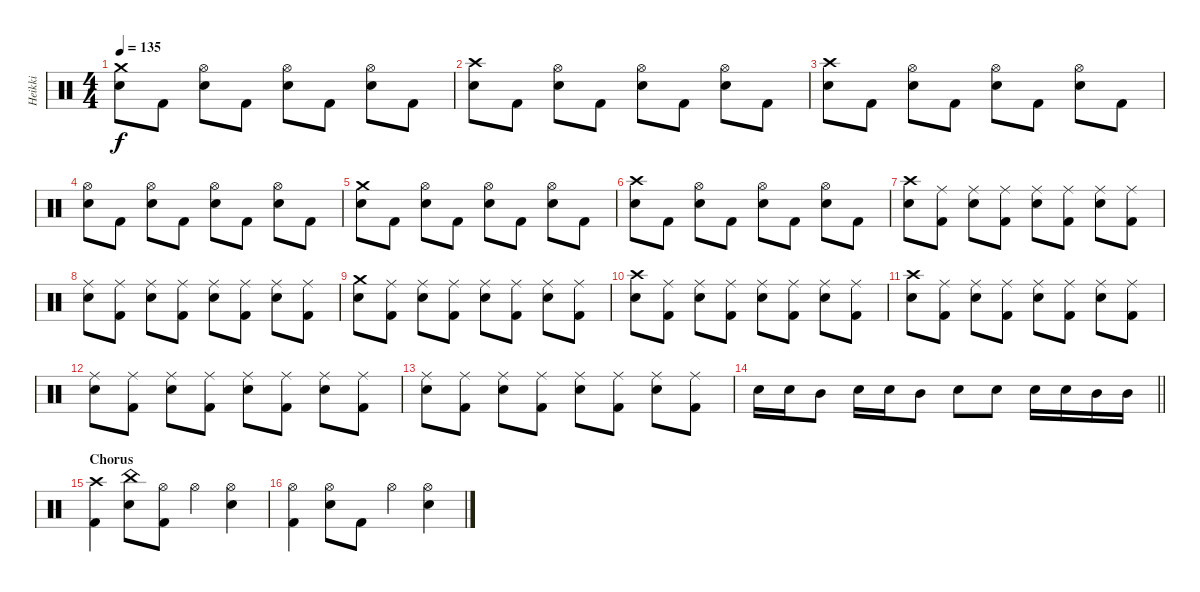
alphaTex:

\track ("Heikki" "Heikki") {instrument percussion}
\staff {score}
\articulation defaults
\ts (4 4)
\tempo 135
\clef neutral
\ks c
("Crash medium (hit)" "Electric Snare (hit)").8{dy f} "Kick (hit) 2".8 ("Hi-Hat (open)" "Electric Snare (hit)").8 "Kick (hit) 2".8 ("Hi-Hat (open)" "Electric Snare (hit)").8 "Kick (hit) 2".8 ("Hi-Hat (open)" "Electric Snare (hit)").8 "Kick (hit) 2".8 |
("Crash high (hit)" "Electric Snare (hit)").8 "Kick (hit) 2".8 ("Hi-Hat (open)" "Electric Snare (hit)").8 "Kick (hit) 2".8 ("Hi-Hat (open)" "Electric Snare (hit)").8 "Kick (hit) 2".8 ("Hi-Hat (open)" "Electric Snare (hit)").8 "Kick (hit) 2".8 |
("Crash high (hit)" "Electric Snare (hit)").8 "Kick (hit) 2".8 ("Hi-Hat (open)" "Electric Snare (hit)").8 "Kick (hit) 2".8 ("Hi-Hat (open)" "Electric Snare (hit)").8 "Kick (hit) 2".8 ("Hi-Hat (open)" "Electric Snare (hit)").8 "Kick (hit) 2".8 |
("Hi-Hat (open)" "Electric Snare (hit)").8 "Kick (hit) 2".8 ("Hi-Hat (open)" "Electric Snare (hit)").8 "Kick (hit) 2".8 ("Hi-Hat (open)" "Electric Snare (hit)").8 "Kick (hit) 2".8 ("Hi-Hat (open)" "Electric Snare (hit)").8 "Kick (hit) 2".8 |
("Crash medium (hit)" "Electric Snare (hit)").8 "Kick (hit) 2".8 ("Hi-Hat (open)" "Electric Snare (hit)").8 "Kick (hit) 2".8 ("Hi-Hat (open)" "Electric Snare (hit)").8 "Kick (hit) 2".8 ("Hi-Hat (open)" "Electric Snare (hit)").8 "Kick (hit) 2".8 |
("Crash high (hit)" "Electric Snare (hit)").8 "Kick (hit) 2".8 ("Hi-Hat (open)" "Electric Snare (hit)").8 "Kick (hit) 2".8 ("Hi-Hat (open)" "Electric Snare (hit)").8 "Kick (hit) 2".8 ("Hi-Hat (open)" "Electric Snare (hit)").8 "Kick (hit) 2".8 |
("Crash high (hit)" "Electric Snare (hit)").8 ("Ride (middle)" "Kick (hit) 2").8 ("Ride (middle)" "Electric Snare (hit)").8 ("Ride (middle)" "Kick (hit) 2").8 ("Ride (middle)" "Electric Snare (hit)").8 ("Ride (middle)" "Kick (hit) 2").8 ("Ride (middle)" "Electric Snare (hit)").8 ("Ride (middle)" "Kick (hit) 2").8 |
("Ride (middle)" "Electric Snare (hit)").8 ("Ride (middle)" "Kick (hit) 2").8 ("Ride (middle)" "Electric Snare (hit)").8 ("Ride (middle)" "Kick (hit) 2").8 ("Ride (middle)" "Electric Snare (hit)").8 ("Ride (middle)" "Kick (hit) 2").8 ("Ride (middle)" "Electric Snare (hit)").8 ("Ride (middle)" "Kick (hit) 2").8 |
("Crash medium (hit)" "Electric Snare (hit)").8 ("Ride (middle)" "Kick (hit) 2").8 ("Ride (middle)" "Electric Snare (hit)").8 ("Ride (middle)" "Kick (hit) 2").8 ("Ride (middle)" "Electric Snare (hit)").8 ("Ride (middle)" "Kick (hit) 2").8 ("Ride (middle)" "Electric Snare (hit)").8 ("Ride (middle)" "Kick (hit) 2").8 |
("Crash high (hit)" "Electric Snare (hit)").8 ("Ride (middle)" "Kick (hit) 2").8 ("Ride (middle)" "Electric Snare (hit)").8 ("Ride (middle)" "Kick (hit) 2").8 ("Ride (middle)" "Electric Snare (hit)").8 ("Ride (middle)" "Kick (hit) 2").8 ("Ride (middle)" "Electric Snare (hit)").8 ("Ride (middle)" "Kick (hit) 2").8 |
("Crash high (hit)" "Electric Snare (hit)").8 ("Ride (middle)" "Kick (hit) 2").8 ("Ride (middle)" "Electric Snare (hit)").8 ("Ride (middle)" "Kick (hit) 2").8 ("Ride (middle)" "Electric Snare (hit)").8 ("Ride (middle)" "Kick (hit) 2").8 ("Ride (middle)" "Electric Snare (hit)").8 ("Ride (middle)" "Kick (hit) 2").8 |
("Ride (middle)" "Electric Snare (hit)").8 ("Ride (middle)" "Kick (hit) 2").8 ("Ride (middle)" "Electric Snare (hit)").8 ("Ride (middle)" "Kick (hit) 2").8 ("Ride (middle)" "Electric Snare (hit)").8 ("Ride (middle)" "Kick (hit) 2").8 ("Ride (middle)" "Electric Snare (hit)").8 ("Ride (middle)" "Kick (hit) 2").8 |
("Ride (middle)" "Electric Snare (hit)").8 ("Ride (middle)" "Kick (hit) 2").8 ("Ride (middle)" "Electric Snare (hit)").8 ("Ride (middle)" "Kick (hit) 2").8 ("Ride (middle)" "Electric Snare (hit)").8 ("Ride (middle)" "Kick (hit) 2").8 ("Ride (middle)" "Electric Snare (hit)").8 ("Ride (middle)" "Kick (hit) 2").8 |
\barLineRight lightlight "Electric Snare (hit)".16 "Electric Snare (hit)".16 "Mid Tom (hit)".8 "Electric Snare (hit)".16 "Electric Snare (hit)".16 "Mid Tom (hit)".8 "Electric Snare (hit)".8 "Electric Snare (hit)".8 "Electric Snare (hit)".16 "Electric Snare (hit)".16 "Mid Tom (hit)".16 "Mid Tom (hit)".16
|
\section ("" "Chorus")
("Crash high (hit)" "Kick (hit) 2").4 ("China (hit)" "Electric Snare (hit)").8 ("Hi-Hat (open)" "Kick (hit) 2").8 "Hi-Hat (open)".4 ("Hi-Hat (open)" "Electric Snare (hit)").4 |
("Hi-Hat (open)" "Kick (hit) 2").4 ("Hi-Hat (open)" "Electric Snare (hit)").8 "Kick (hit) 2".8 "Hi-Hat (open)".4 ("Hi-Hat (open)" "Electric Snare (hit)").4
